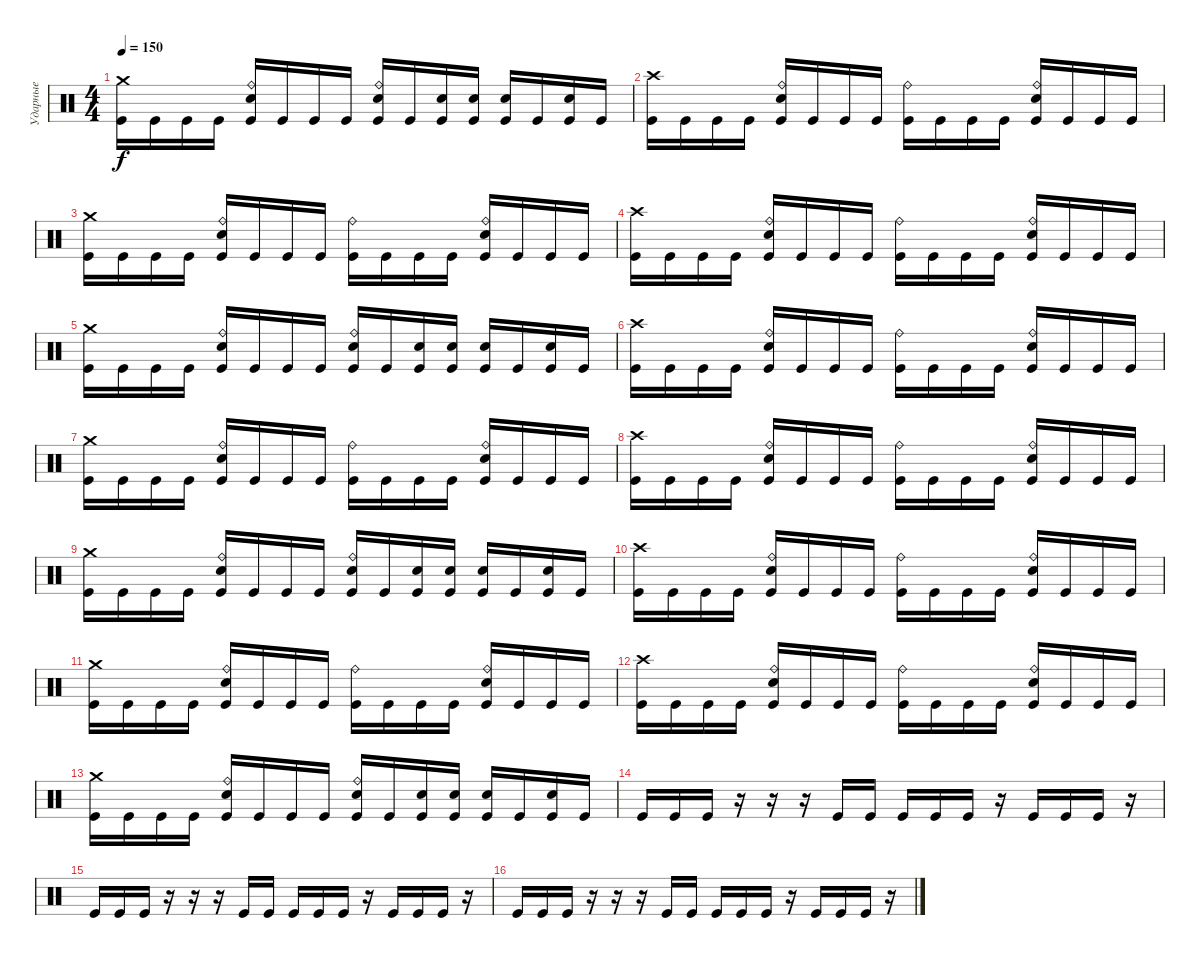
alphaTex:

\track ("Ударные" "Ударные") {instrument percussion}
\staff {score}
\articulation defaults
\ts (4 4)
\tempo 150
\clef neutral
\ks c
("Crash medium (hit)" "Kick (hit)").16{dy f} "Kick (hit)".16 "Kick (hit)".16 "Kick (hit)".16 ("Ride (bell)" "Electric Snare (hit)" "Kick (hit)").16 "Kick (hit)".16 "Kick (hit)".16 "Kick (hit)".16 ("Ride (bell)" "Electric Snare (hit)" "Kick (hit)").16 "Kick (hit)".16 ("Electric Snare (hit)" "Kick (hit)").16 ("Electric Snare (hit)" "Kick (hit)").16 ("Electric Snare (hit)" "Kick (hit)").16 "Kick (hit)".16 ("Electric Snare (hit)" "Kick (hit)").16 "Kick (hit)".16 |
("Crash high (hit)" "Kick (hit)").16 "Kick (hit)".16 "Kick (hit)".16 "Kick (hit)".16 ("Ride (bell)" "Electric Snare (hit)" "Kick (hit)").16 "Kick (hit)".16 "Kick (hit)".16 "Kick (hit)".16 ("Ride (bell)" "Kick (hit)").16 "Kick (hit)".16 "Kick (hit)".16 "Kick (hit)".16 ("Ride (bell)" "Electric Snare (hit)" "Kick (hit)").16 "Kick (hit)".16 "Kick (hit)".16 "Kick (hit)".16 |
("Crash medium (hit)" "Kick (hit)").16 "Kick (hit)".16 "Kick (hit)".16 "Kick (hit)".16 ("Ride (bell)" "Electric Snare (hit)" "Kick (hit)").16 "Kick (hit)".16 "Kick (hit)".16 "Kick (hit)".16 ("Ride (bell)" "Kick (hit)").16 "Kick (hit)".16 "Kick (hit)".16 "Kick (hit)".16 ("Ride (bell)" "Electric Snare (hit)" "Kick (hit)").16 "Kick (hit)".16 "Kick (hit)".16 "Kick (hit)".16 |
("Crash high (hit)" "Kick (hit)").16 "Kick (hit)".16 "Kick (hit)".16 "Kick (hit)".16 ("Ride (bell)" "Electric Snare (hit)" "Kick (hit)").16 "Kick (hit)".16 "Kick (hit)".16 "Kick (hit)".16 ("Ride (bell)" "Kick (hit)").16 "Kick (hit)".16 "Kick (hit)".16 "Kick (hit)".16 ("Ride (bell)" "Electric Snare (hit)" "Kick (hit)").16 "Kick (hit)".16 "Kick (hit)".16 "Kick (hit)".16 |
("Crash medium (hit)" "Kick (hit)").16 "Kick (hit)".16 "Kick (hit)".16 "Kick (hit)".16 ("Ride (bell)" "Electric Snare (hit)" "Kick (hit)").16 "Kick (hit)".16 "Kick (hit)".16 "Kick (hit)".16 ("Ride (bell)" "Electric Snare (hit)" "Kick (hit)").16 "Kick (hit)".16 ("Electric Snare (hit)" "Kick (hit)").16 ("Electric Snare (hit)" "Kick (hit)").16 ("Electric Snare (hit)" "Kick (hit)").16 "Kick (hit)".16 ("Electric Snare (hit)" "Kick (hit)").16 "Kick (hit)".16 |
("Crash high (hit)" "Kick (hit)").16 "Kick (hit)".16 "Kick (hit)".16 "Kick (hit)".16 ("Ride (bell)" "Electric Snare (hit)" "Kick (hit)").16 "Kick (hit)".16 "Kick (hit)".16 "Kick (hit)".16 ("Ride (bell)" "Kick (hit)").16 "Kick (hit)".16 "Kick (hit)".16 "Kick (hit)".16 ("Ride (bell)" "Electric Snare (hit)" "Kick (hit)").16 "Kick (hit)".16 "Kick (hit)".16 "Kick (hit)".16 |
("Crash medium (hit)" "Kick (hit)").16 "Kick (hit)".16 "Kick (hit)".16 "Kick (hit)".16 ("Ride (bell)" "Electric Snare (hit)" "Kick (hit)").16 "Kick (hit)".16 "Kick (hit)".16 "Kick (hit)".16 ("Ride (bell)" "Kick (hit)").16 "Kick (hit)".16 "Kick (hit)".16 "Kick (hit)".16 ("Ride (bell)" "Electric Snare (hit)" "Kick (hit)").16 "Kick (hit)".16 "Kick (hit)".16 "Kick (hit)".16 |
("Crash high (hit)" "Kick (hit)").16 "Kick (hit)".16 "Kick (hit)".16 "Kick (hit)".16 ("Ride (bell)" "Electric Snare (hit)" "Kick (hit)").16 "Kick (hit)".16 "Kick (hit)".16 "Kick (hit)".16 ("Ride (bell)" "Kick (hit)").16 "Kick (hit)".16 "Kick (hit)".16 "Kick (hit)".16 ("Ride (bell)" "Electric Snare (hit)" "Kick (hit)").16 "Kick (hit)".16 "Kick (hit)".16 "Kick (hit)".16 |
("Crash medium (hit)" "Kick (hit)").16 "Kick (hit)".16 "Kick (hit)".16 "Kick (hit)".16 ("Ride (bell)" "Electric Snare (hit)" "Kick (hit)").16 "Kick (hit)".16 "Kick (hit)".16 "Kick (hit)".16 ("Ride (bell)" "Electric Snare (hit)" "Kick (hit)").16 "Kick (hit)".16 ("Electric Snare (hit)" "Kick (hit)").16 ("Electric Snare (hit)" "Kick (hit)").16 ("Electric Snare (hit)" "Kick (hit)").16 "Kick (hit)".16 ("Electric Snare (hit)" "Kick (hit)").16 "Kick (hit)".16 |
("Crash high (hit)" "Kick (hit)").16 "Kick (hit)".16 "Kick (hit)".16 "Kick (hit)".16 ("Ride (bell)" "Electric Snare (hit)" "Kick (hit)").16 "Kick (hit)".16 "Kick (hit)".16 "Kick (hit)".16 ("Ride (bell)" "Kick (hit)").16 "Kick (hit)".16 "Kick (hit)".16 "Kick (hit)".16 ("Ride (bell)" "Electric Snare (hit)" "Kick (hit)").16 "Kick (hit)".16 "Kick (hit)".16 "Kick (hit)".16 |
("Crash medium (hit)" "Kick (hit)").16 "Kick (hit)".16 "Kick (hit)".16 "Kick (hit)".16 ("Ride (bell)" "Electric Snare (hit)" "Kick (hit)").16 "Kick (hit)".16 "Kick (hit)".16 "Kick (hit)".16 ("Ride (bell)" "Kick (hit)").16 "Kick (hit)".16 "Kick (hit)".16 "Kick (hit)".16 ("Ride (bell)" "Electric Snare (hit)" "Kick (hit)").16 "Kick (hit)".16 "Kick (hit)".16 "Kick (hit)".16 |
("Crash high (hit)" "Kick (hit)").16 "Kick (hit)".16 "Kick (hit)".16 "Kick (hit)".16 ("Ride (bell)" "Electric Snare (hit)" "Kick (hit)").16 "Kick (hit)".16 "Kick (hit)".16 "Kick (hit)".16 ("Ride (bell)" "Kick (hit)").16 "Kick (hit)".16 "Kick (hit)".16 "Kick (hit)".16 ("Ride (bell)" "Electric Snare (hit)" "Kick (hit)").16 "Kick (hit)".16 "Kick (hit)".16 "Kick (hit)".16 |
("Crash medium (hit)" "Kick (hit)").16 "Kick (hit)".16 "Kick (hit)".16 "Kick (hit)".16 ("Ride (bell)" "Electric Snare (hit)" "Kick (hit)").16 "Kick (hit)".16 "Kick (hit)".16 "Kick (hit)".16 ("Ride (bell)" "Electric Snare (hit)" "Kick (hit)").16 "Kick (hit)".16 ("Electric Snare (hit)" "Kick (hit)").16 ("Electric Snare (hit)" "Kick (hit)").16 ("Electric Snare (hit)" "Kick (hit)").16 "Kick (hit)".16 ("Electric Snare (hit)" "Kick (hit)").16 "Kick (hit)".16 |
"Kick (hit)".16 "Kick (hit)".16 "Kick (hit)".16 r.16 r.16 r.16 "Kick (hit)".16 "Kick (hit)".16 "Kick (hit)".16 "Kick (hit)".16 "Kick (hit)".16 r.16 "Kick (hit)".16 "Kick (hit)".16 "Kick (hit)".16 r.16 |
"Kick (hit)".16 "Kick (hit)".16 "Kick (hit)".16 r.16 r.16 r.16 "Kick (hit)".16 "Kick (hit)".16 "Kick (hit)".16 "Kick (hit)".16 "Kick (hit)".16 r.16 "Kick (hit)".16 "Kick (hit)".16 "Kick (hit)".16 r.16 |
"Kick (hit)".16 "Kick (hit)".16 "Kick (hit)".16 r.16 r.16 r.16 "Kick (hit)".16 "Kick (hit)".16 "Kick (hit)".16 "Kick (hit)".16 "Kick (hit)".16 r.16 "Kick (hit)".16 "Kick (hit)".16 "Kick (hit)".16 r.16
